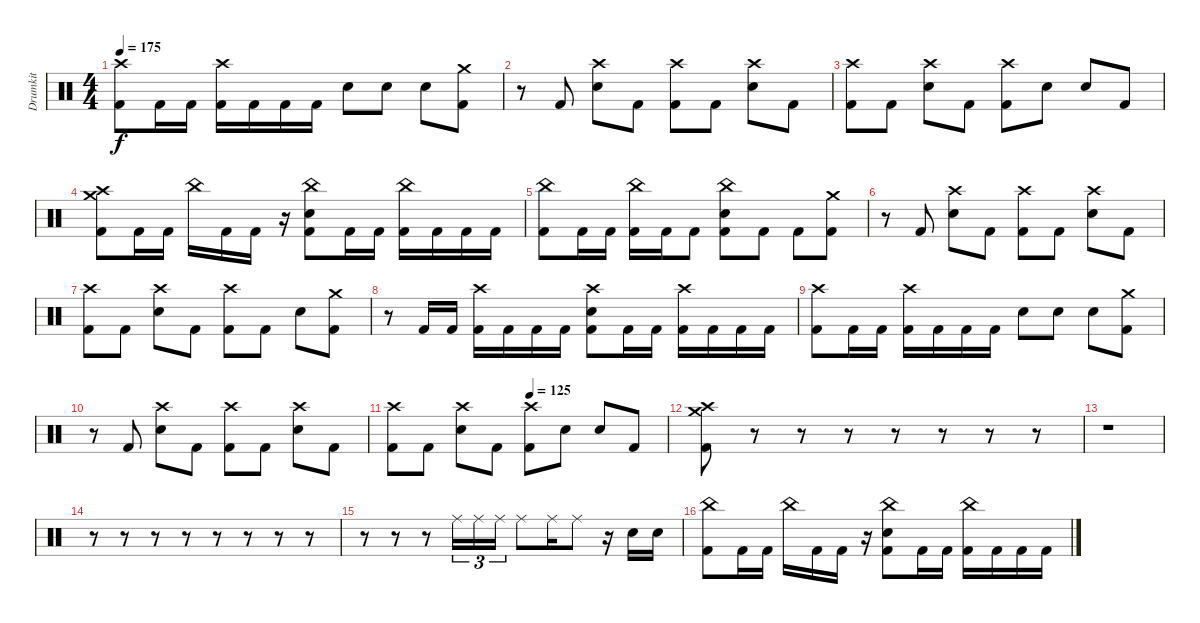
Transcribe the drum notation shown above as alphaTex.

\track ("Drumkit" "Drumkit") {instrument percussion}
\staff {score}
\articulation defaults
\ts (4 4)
\tempo 175
\clef neutral
\ks c
("Crash high (hit)" "Kick (hit) 2").8{dy f} "Kick (hit) 2".16 "Kick (hit) 2".16 ("Crash high (hit)" "Kick (hit) 2").16 "Kick (hit) 2".16 "Kick (hit) 2".16 "Kick (hit) 2".16 "Electric Snare (hit)".8 "Electric Snare (hit)".8 "Electric Snare (hit)".8 ("Crash medium (hit)" "Kick (hit) 2").8 |
r.8 "Kick (hit) 2".8 ("Crash high (hit)" "Electric Snare (hit)").8 "Kick (hit) 2".8 ("Crash high (hit)" "Kick (hit) 2").8 "Kick (hit) 2".8 ("Crash high (hit)" "Electric Snare (hit)").8 "Kick (hit) 2".8 |
("Crash high (hit)" "Kick (hit) 2").8 "Kick (hit) 2".8 ("Crash high (hit)" "Electric Snare (hit)").8 "Kick (hit) 2".8 ("Crash high (hit)" "Kick (hit) 2").8 "Electric Snare (hit)".8 "Electric Snare (hit)".8 "Kick (hit) 2".8 |
("Crash medium (hit)" "Crash high (hit)" "Kick (hit) 2").8 "Kick (hit) 2".16 "Kick (hit) 2".16 "China (hit)".16 "Kick (hit) 2".16 "Kick (hit) 2".16 r.16 ("China (hit)" "Electric Snare (hit)" "Kick (hit) 2").8 "Kick (hit) 2".16 "Kick (hit) 2".16 ("China (hit)" "Kick (hit) 2").16 "Kick (hit) 2".16 "Kick (hit) 2".16 "Kick (hit) 2".16 |
("China (hit)" "Kick (hit) 2").8 "Kick (hit) 2".16 "Kick (hit) 2".16 ("China (hit)" "Kick (hit) 2").16 "Kick (hit) 2".16 "Kick (hit) 2".8 ("China (hit)" "Electric Snare (hit)" "Kick (hit) 2").8 "Kick (hit) 2".8 "Kick (hit) 2".8 ("Crash medium (hit)" "Kick (hit) 2").8 |
r.8 "Kick (hit) 2".8 ("Crash high (hit)" "Electric Snare (hit)").8 "Kick (hit) 2".8 ("Crash high (hit)" "Kick (hit) 2").8 "Kick (hit) 2".8 ("Crash high (hit)" "Electric Snare (hit)").8 "Kick (hit) 2".8 |
("Crash high (hit)" "Kick (hit) 2").8 "Kick (hit) 2".8 ("Crash high (hit)" "Electric Snare (hit)").8 "Kick (hit) 2".8 ("Crash high (hit)" "Kick (hit) 2").8 "Kick (hit) 2".8 "Electric Snare (hit)".8 ("Crash medium (hit)" "Kick (hit) 2").8 |
r.8 "Kick (hit) 2".16 "Kick (hit) 2".16 ("Crash high (hit)" "Kick (hit) 2").16 "Kick (hit) 2".16 "Kick (hit) 2".16 "Kick (hit) 2".16 ("Crash high (hit)" "Electric Snare (hit)" "Kick (hit) 2").8 "Kick (hit) 2".16 "Kick (hit) 2".16 ("Crash high (hit)" "Kick (hit) 2").16 "Kick (hit) 2".16 "Kick (hit) 2".16 "Kick (hit) 2".16 |
("Crash high (hit)" "Kick (hit) 2").8 "Kick (hit) 2".16 "Kick (hit) 2".16 ("Crash high (hit)" "Kick (hit) 2").16 "Kick (hit) 2".16 "Kick (hit) 2".16 "Kick (hit) 2".16 "Electric Snare (hit)".8 "Electric Snare (hit)".8 "Electric Snare (hit)".8 ("Crash medium (hit)" "Kick (hit) 2").8 |
r.8 "Kick (hit) 2".8 ("Crash high (hit)" "Electric Snare (hit)").8 "Kick (hit) 2".8 ("Crash high (hit)" "Kick (hit) 2").8 "Kick (hit) 2".8 ("Crash high (hit)" "Electric Snare (hit)").8 "Kick (hit) 2".8 |
\tempo (125 0.5)
("Crash high (hit)" "Kick (hit) 2").8 "Kick (hit) 2".8 ("Crash high (hit)" "Electric Snare (hit)").8 "Kick (hit) 2".8 ("Crash high (hit)" "Kick (hit) 2").8 "Electric Snare (hit)".8 "Electric Snare (hit)".8 "Kick (hit) 2".8 |
("Crash medium (hit)" "Crash high (hit)" "Kick (hit) 2").8 r.8 r.8 r.8 r.8 r.8 r.8 r.8 |
r.1 |
r.8 r.8 r.8 r.8 r.8 r.8 r.8 r.8 |
r.8 r.8 r.8 "Ride (middle)".16{tu (3 2)} "Ride (middle)".16{tu (3 2)} "Ride (middle)".16{tu (3 2)} "Ride (middle)".8 "Ride (middle)".16 "Ride (middle)".8 r.16 "Electric Snare (hit)".16 "Electric Snare (hit)".16 |
("China (hit)" "Kick (hit) 2").8 "Kick (hit) 2".16 "Kick (hit) 2".16 "China (hit)".16 "Kick (hit) 2".16 "Kick (hit) 2".16 r.16 ("China (hit)" "Electric Snare (hit)" "Kick (hit) 2").8 "Kick (hit) 2".16 "Kick (hit) 2".16 ("China (hit)" "Kick (hit) 2").16 "Kick (hit) 2".16 "Kick (hit) 2".16 "Kick (hit) 2".16
